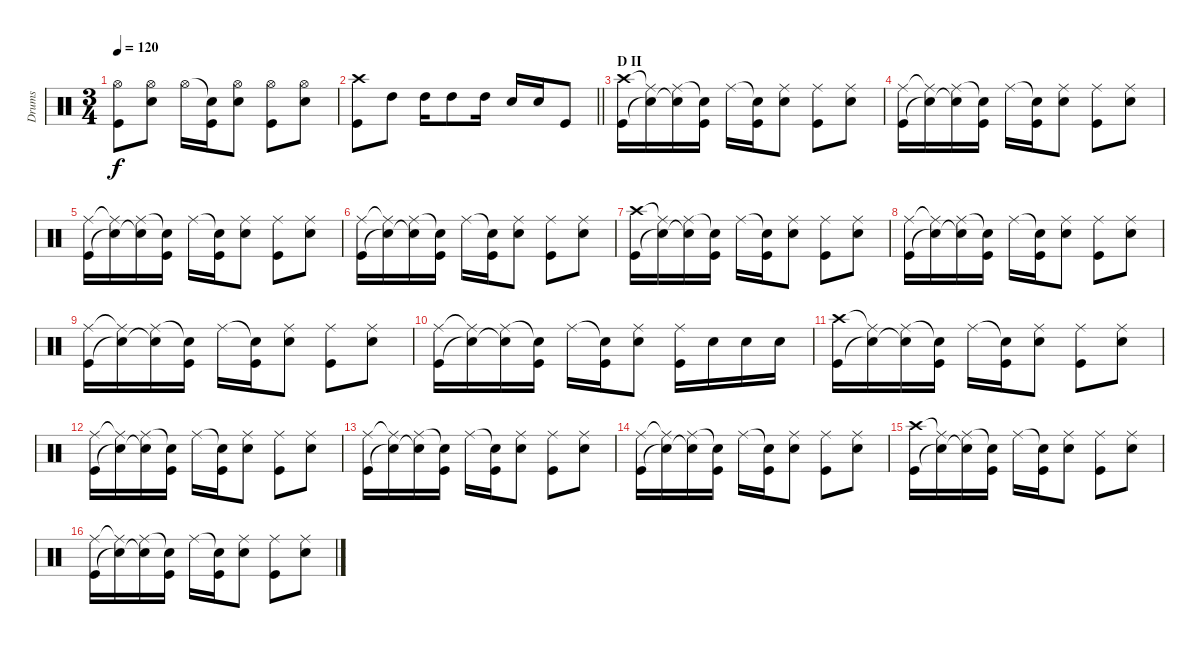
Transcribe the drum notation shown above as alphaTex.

\track ("Drums" "Drums") {instrument percussion}
\staff {score}
\articulation defaults
\ts (3 4)
\tempo 120
\clef neutral
\ks c
("Hi-Hat (open)" "Kick (hit)").8{dy f} ("Hi-Hat (open)" "Snare (hit) 2").8 "Hi-Hat (open)".16 ("Snare (hit)"{t} "Kick (hit)").16 ("Hi-Hat (open)" "Snare (hit) 2").8 ("Hi-Hat (open)" "Kick (hit)").8 ("Hi-Hat (open)" "Snare (hit) 2").8 |
\barLineRight lightlight
("Crash high (hit)" "Kick (hit)").8 "High Tom (hit)".8 "High Tom (hit)".16 "High Tom (hit)".8 "High Tom (hit)".16 "Snare (hit) 2".16 "Snare (hit) 2".16 "Kick (hit)".8 |
\section ("" "D II")
("Crash high (hit)" "Kick (hit)").16 ("Ride (middle)"{t} "Snare (hit)"{t}).16 ("Ride (middle)" "Snare (hit)"{t}).16 ("Snare (hit)"{t} "Kick (hit)").16 "Ride (middle)".16 ("Snare (hit)"{t} "Kick (hit)").16 ("Ride (middle)" "Snare (hit) 2").8 ("Ride (middle)" "Kick (hit)").8 ("Ride (middle)" "Snare (hit) 2").8 |
("Ride (middle)" "Kick (hit)").16 ("Ride (middle)"{t} "Snare (hit)"{t}).16 ("Ride (middle)" "Snare (hit)"{t}).16 ("Snare (hit)"{t} "Kick (hit)").16 "Ride (middle)".16 ("Snare (hit)"{t} "Kick (hit)").16 ("Ride (middle)" "Snare (hit) 2").8 ("Ride (middle)" "Kick (hit)").8 ("Ride (middle)" "Snare (hit) 2").8 |
("Ride (middle)" "Kick (hit)").16 ("Ride (middle)"{t} "Snare (hit)"{t}).16 ("Ride (middle)" "Snare (hit)"{t}).16 ("Snare (hit)"{t} "Kick (hit)").16 "Ride (middle)".16 ("Snare (hit)"{t} "Kick (hit)").16 ("Ride (middle)" "Snare (hit) 2").8 ("Ride (middle)" "Kick (hit)").8 ("Ride (middle)" "Snare (hit) 2").8 |
("Ride (middle)" "Kick (hit)").16 ("Ride (middle)"{t} "Snare (hit)"{t}).16 ("Ride (middle)" "Snare (hit)"{t}).16 ("Snare (hit)"{t} "Kick (hit)").16 "Ride (middle)".16 ("Snare (hit)"{t} "Kick (hit)").16 ("Ride (middle)" "Snare (hit) 2").8 ("Ride (middle)" "Kick (hit)").8 ("Ride (middle)" "Snare (hit) 2").8 |
("Crash high (hit)" "Kick (hit)").16 ("Ride (middle)"{t} "Snare (hit)"{t}).16 ("Ride (middle)" "Snare (hit)"{t}).16 ("Snare (hit)"{t} "Kick (hit)").16 "Ride (middle)".16 ("Snare (hit)"{t} "Kick (hit)").16 ("Ride (middle)" "Snare (hit) 2").8 ("Ride (middle)" "Kick (hit)").8 ("Ride (middle)" "Snare (hit) 2").8 |
("Ride (middle)" "Kick (hit)").16 ("Ride (middle)"{t} "Snare (hit)"{t}).16 ("Ride (middle)" "Snare (hit)"{t}).16 ("Snare (hit)"{t} "Kick (hit)").16 "Ride (middle)".16 ("Snare (hit)"{t} "Kick (hit)").16 ("Ride (middle)" "Snare (hit) 2").8 ("Ride (middle)" "Kick (hit)").8 ("Ride (middle)" "Snare (hit) 2").8 |
("Ride (middle)" "Kick (hit)").16 ("Ride (middle)"{t} "Snare (hit)"{t}).16 ("Ride (middle)" "Snare (hit)"{t}).16 ("Snare (hit)"{t} "Kick (hit)").16 "Ride (middle)".16 ("Snare (hit)"{t} "Kick (hit)").16 ("Ride (middle)" "Snare (hit) 2").8 ("Ride (middle)" "Kick (hit)").8 ("Ride (middle)" "Snare (hit) 2").8 |
("Ride (middle)" "Kick (hit)").16 ("Ride (middle)"{t} "Snare (hit)"{t}).16 ("Ride (middle)" "Snare (hit)"{t}).16 ("Snare (hit)"{t} "Kick (hit)").16 "Ride (middle)".16 ("Snare (hit)"{t} "Kick (hit)").16 ("Ride (middle)" "Snare (hit) 2").8 ("Ride (middle)" "Kick (hit)").16 "Snare (hit) 2".16 "Snare (hit) 2".16 "Snare (hit) 2".16 |
("Crash high (hit)" "Kick (hit)").16 ("Ride (middle)"{t} "Snare (hit)"{t}).16 ("Ride (middle)" "Snare (hit)"{t}).16 ("Snare (hit)"{t} "Kick (hit)").16 "Ride (middle)".16 ("Snare (hit)"{t} "Kick (hit)").16 ("Ride (middle)" "Snare (hit) 2").8 ("Ride (middle)" "Kick (hit)").8 ("Ride (middle)" "Snare (hit) 2").8 |
("Ride (middle)" "Kick (hit)").16 ("Ride (middle)"{t} "Snare (hit)"{t}).16 ("Ride (middle)" "Snare (hit)"{t}).16 ("Snare (hit)"{t} "Kick (hit)").16 "Ride (middle)".16 ("Snare (hit)"{t} "Kick (hit)").16 ("Ride (middle)" "Snare (hit) 2").8 ("Ride (middle)" "Kick (hit)").8 ("Ride (middle)" "Snare (hit) 2").8 |
("Ride (middle)" "Kick (hit)").16 ("Ride (middle)"{t} "Snare (hit)"{t}).16 ("Ride (middle)" "Snare (hit)"{t}).16 ("Snare (hit)"{t} "Kick (hit)").16 "Ride (middle)".16 ("Snare (hit)"{t} "Kick (hit)").16 ("Ride (middle)" "Snare (hit) 2").8 ("Ride (middle)" "Kick (hit)").8 ("Ride (middle)" "Snare (hit) 2").8 |
("Ride (middle)" "Kick (hit)").16 ("Ride (middle)"{t} "Snare (hit)"{t}).16 ("Ride (middle)" "Snare (hit)"{t}).16 ("Snare (hit)"{t} "Kick (hit)").16 "Ride (middle)".16 ("Snare (hit)"{t} "Kick (hit)").16 ("Ride (middle)" "Snare (hit) 2").8 ("Ride (middle)" "Kick (hit)").8 ("Ride (middle)" "Snare (hit) 2").8 |
("Crash high (hit)" "Kick (hit)").16 ("Ride (middle)"{t} "Snare (hit)"{t}).16 ("Ride (middle)" "Snare (hit)"{t}).16 ("Snare (hit)"{t} "Kick (hit)").16 "Ride (middle)".16 ("Snare (hit)"{t} "Kick (hit)").16 ("Ride (middle)" "Snare (hit) 2").8 ("Ride (middle)" "Kick (hit)").8 ("Ride (middle)" "Snare (hit) 2").8 |
("Ride (middle)" "Kick (hit)").16 ("Ride (middle)"{t} "Snare (hit)"{t}).16 ("Ride (middle)" "Snare (hit)"{t}).16 ("Snare (hit)"{t} "Kick (hit)").16 "Ride (middle)".16 ("Snare (hit)"{t} "Kick (hit)").16 ("Ride (middle)" "Snare (hit) 2").8 ("Ride (middle)" "Kick (hit)").8 ("Ride (middle)" "Snare (hit) 2").8
